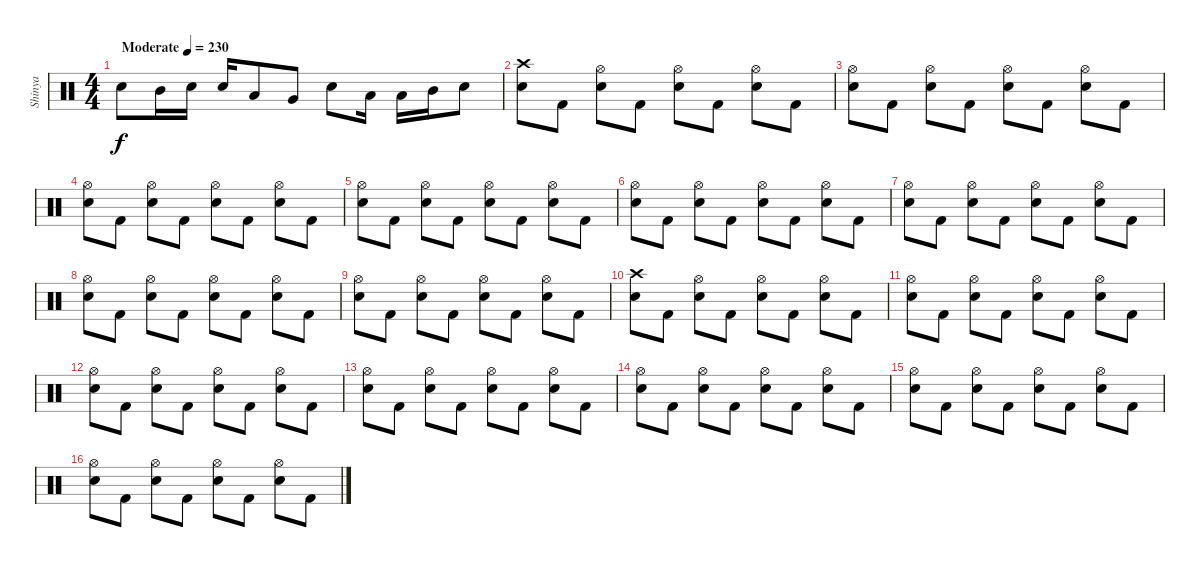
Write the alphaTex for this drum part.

\track ("Shinya" "Shinya") {instrument percussion}
\staff {score}
\articulation defaults
\ts (4 4)
\tempo (230 "Moderate")
\clef neutral
\ks c "Electric Snare (hit)".8{dy f} "Mid Tom (hit)".16 "Electric Snare (hit)".16 "Electric Snare (hit)".16 "Low Tom (hit)".8 "Very Low Tom (hit)".8 "Electric Snare (hit)".8 "Low Tom (hit)".16 "Low Tom (hit)".16 "Mid Tom (hit)".16 "Electric Snare (hit)".8
|
("Crash high (hit)" "Electric Snare (hit)").8 "Kick (hit) 2".8 ("Hi-Hat (open)" "Electric Snare (hit)").8 "Kick (hit) 2".8 ("Hi-Hat (open)" "Electric Snare (hit)").8 "Kick (hit) 2".8 ("Hi-Hat (open)" "Electric Snare (hit)").8 "Kick (hit) 2".8 |
("Hi-Hat (open)" "Electric Snare (hit)").8 "Kick (hit) 2".8 ("Hi-Hat (open)" "Electric Snare (hit)").8 "Kick (hit) 2".8 ("Hi-Hat (open)" "Electric Snare (hit)").8 "Kick (hit) 2".8 ("Hi-Hat (open)" "Electric Snare (hit)").8 "Kick (hit) 2".8 |
("Hi-Hat (open)" "Electric Snare (hit)").8 "Kick (hit) 2".8 ("Hi-Hat (open)" "Electric Snare (hit)").8 "Kick (hit) 2".8 ("Hi-Hat (open)" "Electric Snare (hit)").8 "Kick (hit) 2".8 ("Hi-Hat (open)" "Electric Snare (hit)").8 "Kick (hit) 2".8 |
("Hi-Hat (open)" "Electric Snare (hit)").8 "Kick (hit) 2".8 ("Hi-Hat (open)" "Electric Snare (hit)").8 "Kick (hit) 2".8 ("Hi-Hat (open)" "Electric Snare (hit)").8 "Kick (hit) 2".8 ("Hi-Hat (open)" "Electric Snare (hit)").8 "Kick (hit) 2".8 |
("Hi-Hat (open)" "Electric Snare (hit)").8 "Kick (hit) 2".8 ("Hi-Hat (open)" "Electric Snare (hit)").8 "Kick (hit) 2".8 ("Hi-Hat (open)" "Electric Snare (hit)").8 "Kick (hit) 2".8 ("Hi-Hat (open)" "Electric Snare (hit)").8 "Kick (hit) 2".8 |
("Hi-Hat (open)" "Electric Snare (hit)").8 "Kick (hit) 2".8 ("Hi-Hat (open)" "Electric Snare (hit)").8 "Kick (hit) 2".8 ("Hi-Hat (open)" "Electric Snare (hit)").8 "Kick (hit) 2".8 ("Hi-Hat (open)" "Electric Snare (hit)").8 "Kick (hit) 2".8 |
("Hi-Hat (open)" "Electric Snare (hit)").8 "Kick (hit) 2".8 ("Hi-Hat (open)" "Electric Snare (hit)").8 "Kick (hit) 2".8 ("Hi-Hat (open)" "Electric Snare (hit)").8 "Kick (hit) 2".8 ("Hi-Hat (open)" "Electric Snare (hit)").8 "Kick (hit) 2".8 |
("Hi-Hat (open)" "Electric Snare (hit)").8 "Kick (hit) 2".8 ("Hi-Hat (open)" "Electric Snare (hit)").8 "Kick (hit) 2".8 ("Hi-Hat (open)" "Electric Snare (hit)").8 "Kick (hit) 2".8 ("Hi-Hat (open)" "Electric Snare (hit)").8 "Kick (hit) 2".8 |
("Crash high (hit)" "Electric Snare (hit)").8 "Kick (hit) 2".8 ("Hi-Hat (open)" "Electric Snare (hit)").8 "Kick (hit) 2".8 ("Hi-Hat (open)" "Electric Snare (hit)").8 "Kick (hit) 2".8 ("Hi-Hat (open)" "Electric Snare (hit)").8 "Kick (hit) 2".8 |
("Hi-Hat (open)" "Electric Snare (hit)").8 "Kick (hit) 2".8 ("Hi-Hat (open)" "Electric Snare (hit)").8 "Kick (hit) 2".8 ("Hi-Hat (open)" "Electric Snare (hit)").8 "Kick (hit) 2".8 ("Hi-Hat (open)" "Electric Snare (hit)").8 "Kick (hit) 2".8 |
("Hi-Hat (open)" "Electric Snare (hit)").8 "Kick (hit) 2".8 ("Hi-Hat (open)" "Electric Snare (hit)").8 "Kick (hit) 2".8 ("Hi-Hat (open)" "Electric Snare (hit)").8 "Kick (hit) 2".8 ("Hi-Hat (open)" "Electric Snare (hit)").8 "Kick (hit) 2".8 |
("Hi-Hat (open)" "Electric Snare (hit)").8 "Kick (hit) 2".8 ("Hi-Hat (open)" "Electric Snare (hit)").8 "Kick (hit) 2".8 ("Hi-Hat (open)" "Electric Snare (hit)").8 "Kick (hit) 2".8 ("Hi-Hat (open)" "Electric Snare (hit)").8 "Kick (hit) 2".8 |
("Hi-Hat (open)" "Electric Snare (hit)").8 "Kick (hit) 2".8 ("Hi-Hat (open)" "Electric Snare (hit)").8 "Kick (hit) 2".8 ("Hi-Hat (open)" "Electric Snare (hit)").8 "Kick (hit) 2".8 ("Hi-Hat (open)" "Electric Snare (hit)").8 "Kick (hit) 2".8 |
("Hi-Hat (open)" "Electric Snare (hit)").8 "Kick (hit) 2".8 ("Hi-Hat (open)" "Electric Snare (hit)").8 "Kick (hit) 2".8 ("Hi-Hat (open)" "Electric Snare (hit)").8 "Kick (hit) 2".8 ("Hi-Hat (open)" "Electric Snare (hit)").8 "Kick (hit) 2".8 |
("Hi-Hat (open)" "Electric Snare (hit)").8 "Kick (hit) 2".8 ("Hi-Hat (open)" "Electric Snare (hit)").8 "Kick (hit) 2".8 ("Hi-Hat (open)" "Electric Snare (hit)").8 "Kick (hit) 2".8 ("Hi-Hat (open)" "Electric Snare (hit)").8 "Kick (hit) 2".8
